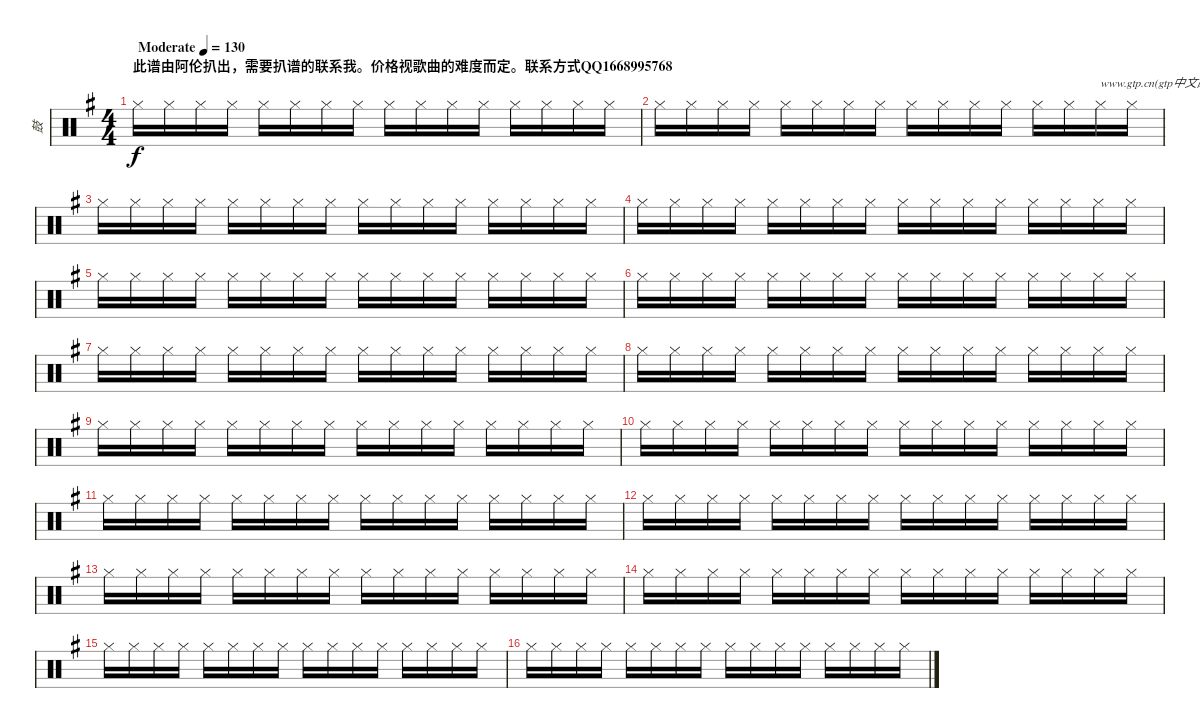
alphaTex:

\track ("鼓" "鼓") {instrument percussion}
\staff {score}
\articulation defaults
\ts (4 4)
\section ("" "此谱由阿伦扒出，需要扒谱的联系我。价格视歌曲的难度而定。联系方式QQ1668995768")
\tempo (130 "Moderate")
\clef neutral
\ks g "Hi-Hat (closed)".16{dy f} "Hi-Hat (closed)".16 "Hi-Hat (closed)".16 "Hi-Hat (closed)".16 "Hi-Hat (closed)".16 "Hi-Hat (closed)".16 "Hi-Hat (closed)".16 "Hi-Hat (closed)".16 "Hi-Hat (closed)".16 "Hi-Hat (closed)".16 "Hi-Hat (closed)".16 "Hi-Hat (closed)".16 "Hi-Hat (closed)".16 "Hi-Hat (closed)".16 "Hi-Hat (closed)".16 "Hi-Hat (closed)".16
|
"Hi-Hat (closed)".16 "Hi-Hat (closed)".16 "Hi-Hat (closed)".16 "Hi-Hat (closed)".16 "Hi-Hat (closed)".16 "Hi-Hat (closed)".16 "Hi-Hat (closed)".16 "Hi-Hat (closed)".16 "Hi-Hat (closed)".16 "Hi-Hat (closed)".16 "Hi-Hat (closed)".16 "Hi-Hat (closed)".16 "Hi-Hat (closed)".16 "Hi-Hat (closed)".16 "Hi-Hat (closed)".16{txt "www.gtp.cn(gtp中文网)为您提供优秀的GTP!"} "Hi-Hat (closed)".16 |
"Hi-Hat (closed)".16 "Hi-Hat (closed)".16 "Hi-Hat (closed)".16 "Hi-Hat (closed)".16 "Hi-Hat (closed)".16 "Hi-Hat (closed)".16 "Hi-Hat (closed)".16 "Hi-Hat (closed)".16 "Hi-Hat (closed)".16 "Hi-Hat (closed)".16 "Hi-Hat (closed)".16 "Hi-Hat (closed)".16 "Hi-Hat (closed)".16 "Hi-Hat (closed)".16 "Hi-Hat (closed)".16 "Hi-Hat (closed)".16 |
"Hi-Hat (closed)".16 "Hi-Hat (closed)".16 "Hi-Hat (closed)".16 "Hi-Hat (closed)".16 "Hi-Hat (closed)".16 "Hi-Hat (closed)".16 "Hi-Hat (closed)".16 "Hi-Hat (closed)".16 "Hi-Hat (closed)".16 "Hi-Hat (closed)".16 "Hi-Hat (closed)".16 "Hi-Hat (closed)".16 "Hi-Hat (closed)".16 "Hi-Hat (closed)".16 "Hi-Hat (closed)".16 "Hi-Hat (closed)".16 |
"Hi-Hat (closed)".16 "Hi-Hat (closed)".16 "Hi-Hat (closed)".16 "Hi-Hat (closed)".16 "Hi-Hat (closed)".16 "Hi-Hat (closed)".16 "Hi-Hat (closed)".16 "Hi-Hat (closed)".16 "Hi-Hat (closed)".16 "Hi-Hat (closed)".16 "Hi-Hat (closed)".16 "Hi-Hat (closed)".16 "Hi-Hat (closed)".16 "Hi-Hat (closed)".16 "Hi-Hat (closed)".16 "Hi-Hat (closed)".16 |
"Hi-Hat (closed)".16 "Hi-Hat (closed)".16 "Hi-Hat (closed)".16 "Hi-Hat (closed)".16 "Hi-Hat (closed)".16 "Hi-Hat (closed)".16 "Hi-Hat (closed)".16 "Hi-Hat (closed)".16 "Hi-Hat (closed)".16 "Hi-Hat (closed)".16 "Hi-Hat (closed)".16 "Hi-Hat (closed)".16 "Hi-Hat (closed)".16 "Hi-Hat (closed)".16 "Hi-Hat (closed)".16 "Hi-Hat (closed)".16 |
"Hi-Hat (closed)".16 "Hi-Hat (closed)".16 "Hi-Hat (closed)".16 "Hi-Hat (closed)".16 "Hi-Hat (closed)".16 "Hi-Hat (closed)".16 "Hi-Hat (closed)".16 "Hi-Hat (closed)".16 "Hi-Hat (closed)".16 "Hi-Hat (closed)".16 "Hi-Hat (closed)".16 "Hi-Hat (closed)".16 "Hi-Hat (closed)".16 "Hi-Hat (closed)".16 "Hi-Hat (closed)".16 "Hi-Hat (closed)".16 |
"Hi-Hat (closed)".16 "Hi-Hat (closed)".16 "Hi-Hat (closed)".16 "Hi-Hat (closed)".16 "Hi-Hat (closed)".16 "Hi-Hat (closed)".16 "Hi-Hat (closed)".16 "Hi-Hat (closed)".16 "Hi-Hat (closed)".16 "Hi-Hat (closed)".16 "Hi-Hat (closed)".16 "Hi-Hat (closed)".16 "Hi-Hat (closed)".16 "Hi-Hat (closed)".16 "Hi-Hat (closed)".16 "Hi-Hat (closed)".16 |
"Hi-Hat (closed)".16 "Hi-Hat (closed)".16 "Hi-Hat (closed)".16 "Hi-Hat (closed)".16 "Hi-Hat (closed)".16 "Hi-Hat (closed)".16 "Hi-Hat (closed)".16 "Hi-Hat (closed)".16 "Hi-Hat (closed)".16 "Hi-Hat (closed)".16 "Hi-Hat (closed)".16 "Hi-Hat (closed)".16 "Hi-Hat (closed)".16 "Hi-Hat (closed)".16 "Hi-Hat (closed)".16 "Hi-Hat (closed)".16 |
"Hi-Hat (closed)".16 "Hi-Hat (closed)".16 "Hi-Hat (closed)".16 "Hi-Hat (closed)".16 "Hi-Hat (closed)".16 "Hi-Hat (closed)".16 "Hi-Hat (closed)".16 "Hi-Hat (closed)".16 "Hi-Hat (closed)".16 "Hi-Hat (closed)".16 "Hi-Hat (closed)".16 "Hi-Hat (closed)".16 "Hi-Hat (closed)".16 "Hi-Hat (closed)".16 "Hi-Hat (closed)".16 "Hi-Hat (closed)".16 |
"Hi-Hat (closed)".16 "Hi-Hat (closed)".16 "Hi-Hat (closed)".16 "Hi-Hat (closed)".16 "Hi-Hat (closed)".16 "Hi-Hat (closed)".16 "Hi-Hat (closed)".16 "Hi-Hat (closed)".16 "Hi-Hat (closed)".16 "Hi-Hat (closed)".16 "Hi-Hat (closed)".16 "Hi-Hat (closed)".16 "Hi-Hat (closed)".16 "Hi-Hat (closed)".16 "Hi-Hat (closed)".16 "Hi-Hat (closed)".16 |
"Hi-Hat (closed)".16 "Hi-Hat (closed)".16 "Hi-Hat (closed)".16 "Hi-Hat (closed)".16 "Hi-Hat (closed)".16 "Hi-Hat (closed)".16 "Hi-Hat (closed)".16 "Hi-Hat (closed)".16 "Hi-Hat (closed)".16 "Hi-Hat (closed)".16 "Hi-Hat (closed)".16 "Hi-Hat (closed)".16 "Hi-Hat (closed)".16 "Hi-Hat (closed)".16 "Hi-Hat (closed)".16 "Hi-Hat (closed)".16 |
"Hi-Hat (closed)".16 "Hi-Hat (closed)".16 "Hi-Hat (closed)".16 "Hi-Hat (closed)".16 "Hi-Hat (closed)".16 "Hi-Hat (closed)".16 "Hi-Hat (closed)".16 "Hi-Hat (closed)".16 "Hi-Hat (closed)".16 "Hi-Hat (closed)".16 "Hi-Hat (closed)".16 "Hi-Hat (closed)".16 "Hi-Hat (closed)".16 "Hi-Hat (closed)".16 "Hi-Hat (closed)".16 "Hi-Hat (closed)".16 |
"Hi-Hat (closed)".16 "Hi-Hat (closed)".16 "Hi-Hat (closed)".16 "Hi-Hat (closed)".16 "Hi-Hat (closed)".16 "Hi-Hat (closed)".16 "Hi-Hat (closed)".16 "Hi-Hat (closed)".16 "Hi-Hat (closed)".16 "Hi-Hat (closed)".16 "Hi-Hat (closed)".16 "Hi-Hat (closed)".16 "Hi-Hat (closed)".16 "Hi-Hat (closed)".16 "Hi-Hat (closed)".16 "Hi-Hat (closed)".16 |
"Hi-Hat (closed)".16 "Hi-Hat (closed)".16 "Hi-Hat (closed)".16 "Hi-Hat (closed)".16 "Hi-Hat (closed)".16 "Hi-Hat (closed)".16 "Hi-Hat (closed)".16 "Hi-Hat (closed)".16 "Hi-Hat (closed)".16 "Hi-Hat (closed)".16 "Hi-Hat (closed)".16 "Hi-Hat (closed)".16 "Hi-Hat (closed)".16 "Hi-Hat (closed)".16 "Hi-Hat (closed)".16 "Hi-Hat (closed)".16 |
"Hi-Hat (closed)".16 "Hi-Hat (closed)".16 "Hi-Hat (closed)".16 "Hi-Hat (closed)".16 "Hi-Hat (closed)".16 "Hi-Hat (closed)".16 "Hi-Hat (closed)".16 "Hi-Hat (closed)".16 "Hi-Hat (closed)".16 "Hi-Hat (closed)".16 "Hi-Hat (closed)".16 "Hi-Hat (closed)".16 "Hi-Hat (closed)".16 "Hi-Hat (closed)".16 "Hi-Hat (closed)".16 "Hi-Hat (closed)".16
